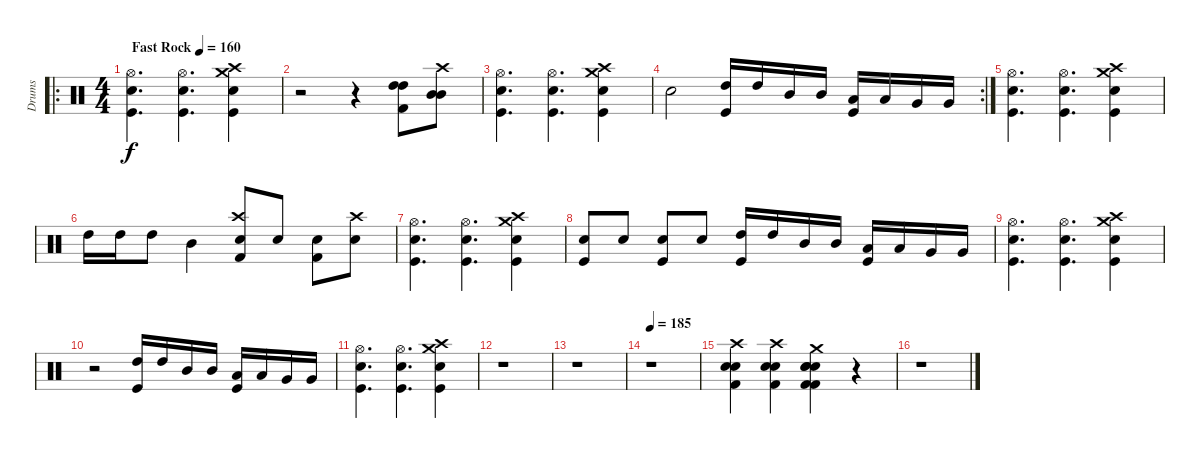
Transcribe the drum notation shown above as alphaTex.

\track ("Drums" "Drums") {instrument percussion}
\staff {score}
\articulation defaults
\ro
\ts (4 4)
\tempo (160 "Fast Rock")
\clef neutral
\ks c
("Kick (hit)" "Electric Snare (hit)" "Hi-Hat (open)").4{d dy f} ("Kick (hit)" "Electric Snare (hit)" "Hi-Hat (open)").4{d} ("Kick (hit)" "Electric Snare (hit)" "Crash medium (hit)" "Crash high (hit)").4 |
r.2 r.4 ("Kick (hit) 2" "High Tom (hit)" "High Tom (hit)").8 ("Mid Tom (hit)" "Mid Tom (hit)" "Crash high (hit)").8 |
("Kick (hit)" "Electric Snare (hit)" "Hi-Hat (open)").4{d} ("Kick (hit)" "Electric Snare (hit)" "Hi-Hat (open)").4{d} ("Kick (hit)" "Electric Snare (hit)" "Crash medium (hit)" "Crash high (hit)").4 |
\rc 2 "Electric Snare (hit)".2
("Kick (hit)" "High Tom (hit)").16 "High Tom (hit)".16 "Mid Tom (hit)".16 "Mid Tom (hit)".16 ("Kick (hit)" "Low Tom (hit)").16 "Low Tom (hit)".16 "Very Low Tom (hit)".16 "Very Low Tom (hit)".16 |
("Kick (hit)" "Electric Snare (hit)" "Hi-Hat (open)").4{d} ("Kick (hit)" "Electric Snare (hit)" "Hi-Hat (open)").4{d} ("Kick (hit)" "Electric Snare (hit)" "Crash medium (hit)" "Crash high (hit)").4 |
"High Tom (hit)".16 "High Tom (hit)".16 "High Tom (hit)".8 "Mid Tom (hit)".4 ("Kick (hit) 2" "Electric Snare (hit)" "Crash high (hit)").8 "Electric Snare (hit)".8 ("Kick (hit) 2" "Electric Snare (hit)").8 ("Electric Snare (hit)" "Crash high (hit)").8 |
("Kick (hit)" "Electric Snare (hit)" "Hi-Hat (open)").4{d} ("Kick (hit)" "Electric Snare (hit)" "Hi-Hat (open)").4{d} ("Kick (hit)" "Electric Snare (hit)" "Crash medium (hit)" "Crash high (hit)").4 |
("Kick (hit)" "Electric Snare (hit)").8 "Electric Snare (hit)".8 ("Kick (hit)" "Electric Snare (hit)").8 "Electric Snare (hit)".8 ("Kick (hit)" "High Tom (hit)").16 "High Tom (hit)".16 "Mid Tom (hit)".16 "Mid Tom (hit)".16 ("Kick (hit)" "Low Tom (hit)").16 "Low Tom (hit)".16 "Very Low Tom (hit)".16 "Very Low Tom (hit)".16 |
("Kick (hit)" "Electric Snare (hit)" "Hi-Hat (open)").4{d} ("Kick (hit)" "Electric Snare (hit)" "Hi-Hat (open)").4{d} ("Kick (hit)" "Electric Snare (hit)" "Crash medium (hit)" "Crash high (hit)").4 |
r.2 ("Kick (hit)" "High Tom (hit)").16 "High Tom (hit)".16 "Mid Tom (hit)".16 "Mid Tom (hit)".16 ("Kick (hit)" "Low Tom (hit)").16 "Low Tom (hit)".16 "Very Low Tom (hit)".16 "Very Low Tom (hit)".16 |
("Kick (hit)" "Electric Snare (hit)" "Hi-Hat (open)").4{d} ("Kick (hit)" "Electric Snare (hit)" "Hi-Hat (open)").4{d} ("Kick (hit)" "Electric Snare (hit)" "Crash medium (hit)" "Crash high (hit)").4 |
r.1 |
r.1 |
\tempo 185
r.1 |
("Kick (hit) 2" "Snare (hit) 2" "Electric Snare (hit)" "Crash high (hit)").4 ("Kick (hit) 2" "Snare (hit) 2" "Electric Snare (hit)" "Crash high (hit)").4 ("Kick (hit) 2" "Snare (hit) 2" "Snare (hit) 2" "Electric Snare (hit)" "Crash medium (hit)" "Kick (hit) 2").4 r.4 |
r.1
